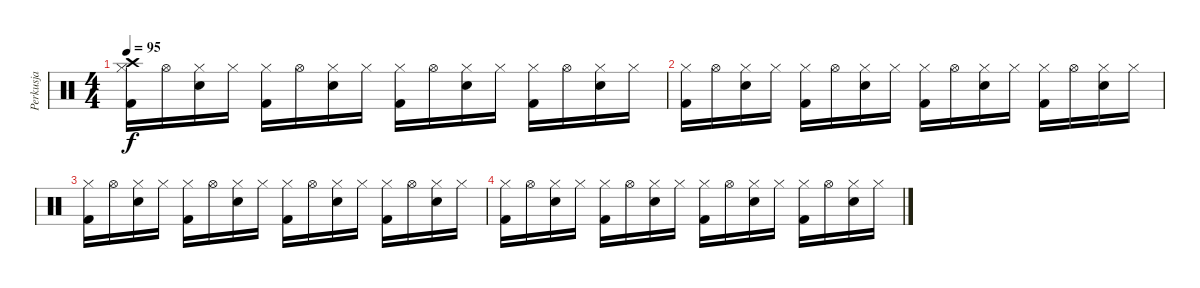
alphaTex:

\track ("Perkusja" "Perkusja") {instrument percussion}
\staff {score}
\articulation defaults
\ts (4 4)
\tempo 95
\clef neutral
\ks c
("Hi-Hat (closed)" "Kick (hit) 2" "Crash high (hit)").16{dy f volume 0} "Hi-Hat (open)".16 ("Hi-Hat (closed)" "Snare (hit) 2").16 "Hi-Hat (closed)".16 ("Hi-Hat (closed)" "Kick (hit) 2").16 "Hi-Hat (open)".16 ("Hi-Hat (closed)" "Snare (hit) 2").16 "Hi-Hat (closed)".16 ("Hi-Hat (closed)" "Kick (hit) 2").16 "Hi-Hat (open)".16 ("Hi-Hat (closed)" "Snare (hit) 2").16 "Hi-Hat (closed)".16 ("Hi-Hat (closed)" "Kick (hit) 2").16 "Hi-Hat (open)".16 ("Hi-Hat (closed)" "Snare (hit) 2").16 "Hi-Hat (closed)".16 |
("Hi-Hat (closed)" "Kick (hit) 2").16 "Hi-Hat (open)".16 ("Hi-Hat (closed)" "Snare (hit) 2").16 "Hi-Hat (closed)".16 ("Hi-Hat (closed)" "Kick (hit) 2").16 "Hi-Hat (open)".16 ("Hi-Hat (closed)" "Snare (hit) 2").16 "Hi-Hat (closed)".16 ("Hi-Hat (closed)" "Kick (hit) 2").16 "Hi-Hat (open)".16 ("Hi-Hat (closed)" "Snare (hit) 2").16 "Hi-Hat (closed)".16 ("Hi-Hat (closed)" "Kick (hit) 2").16 "Hi-Hat (open)".16 ("Hi-Hat (closed)" "Snare (hit) 2").16 "Hi-Hat (closed)".16 |
("Hi-Hat (closed)" "Kick (hit) 2").16 "Hi-Hat (open)".16 ("Hi-Hat (closed)" "Snare (hit) 2").16 "Hi-Hat (closed)".16 ("Hi-Hat (closed)" "Kick (hit) 2").16 "Hi-Hat (open)".16 ("Hi-Hat (closed)" "Snare (hit) 2").16 "Hi-Hat (closed)".16 ("Hi-Hat (closed)" "Kick (hit) 2").16 "Hi-Hat (open)".16 ("Hi-Hat (closed)" "Snare (hit) 2").16 "Hi-Hat (closed)".16 ("Hi-Hat (closed)" "Kick (hit) 2").16 "Hi-Hat (open)".16 ("Hi-Hat (closed)" "Snare (hit) 2").16 "Hi-Hat (closed)".16 |
("Hi-Hat (closed)" "Kick (hit) 2").16 "Hi-Hat (open)".16 ("Hi-Hat (closed)" "Snare (hit) 2").16 "Hi-Hat (closed)".16 ("Hi-Hat (closed)" "Kick (hit) 2").16 "Hi-Hat (open)".16 ("Hi-Hat (closed)" "Snare (hit) 2").16 "Hi-Hat (closed)".16 ("Hi-Hat (closed)" "Kick (hit) 2").16 "Hi-Hat (open)".16 ("Hi-Hat (closed)" "Snare (hit) 2").16 "Hi-Hat (closed)".16 ("Hi-Hat (closed)" "Kick (hit) 2").16 "Hi-Hat (open)".16 ("Hi-Hat (closed)" "Snare (hit) 2").16 "Hi-Hat (closed)".16
